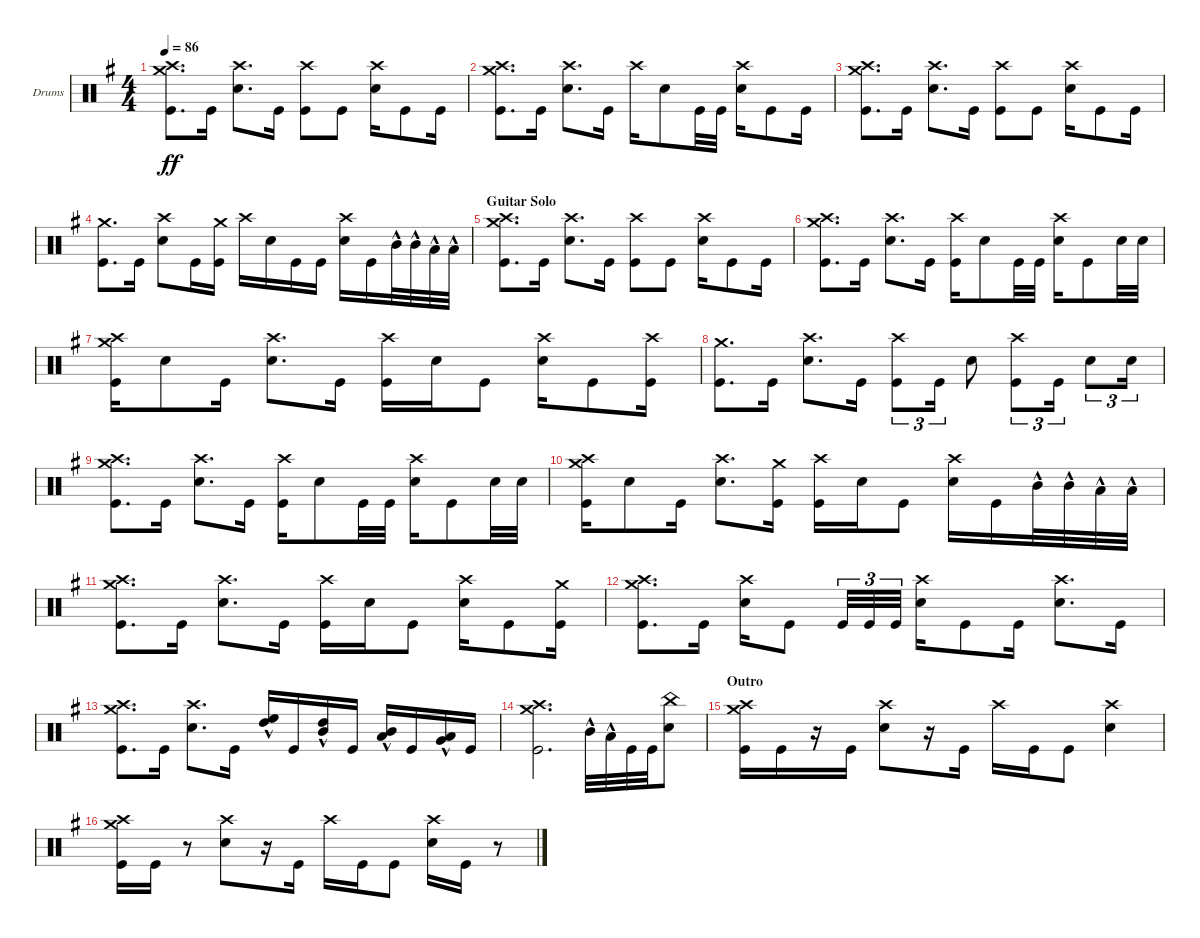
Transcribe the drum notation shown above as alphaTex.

\defaultSystemsLayout 4
\bracketExtendMode groupsimilarinstruments
\firstSystemTrackNameOrientation horizontal
\otherSystemsTrackNameOrientation horizontal
\track ("Drumkit" "Drums") {instrument percussion}
\staff {score}
\articulation defaults
\ts (4 4)
\tempo 86
\clef neutral
\ks eminor
("Crash high (hit)" "Crash medium (hit)" "Kick (hit)").8{d dy ff} "Kick (hit)".16 ("Crash high (hit)" "Snare (hit) 2").8{d} "Kick (hit)".16 ("Kick (hit)" "Crash high (hit)").8 "Kick (hit)".8 ("Snare (hit) 2" "Crash high (hit)").16 "Kick (hit)".8 "Kick (hit)".16 |
("Crash high (hit)" "Crash medium (hit)" "Kick (hit)").8{d} "Kick (hit)".16 ("Crash high (hit)" "Snare (hit) 2").8{d} "Kick (hit)".16 "Crash high (hit)".16 "Snare (hit) 2".8 "Kick (hit)".32 "Kick (hit)".32 ("Snare (hit) 2" "Crash high (hit)").16 "Kick (hit)".8 "Kick (hit)".16 |
("Crash high (hit)" "Crash medium (hit)" "Kick (hit)").8{d} "Kick (hit)".16 ("Crash high (hit)" "Snare (hit) 2").8{d} "Kick (hit)".16 ("Kick (hit)" "Crash high (hit)").8 "Kick (hit)".8 ("Snare (hit) 2" "Crash high (hit)").16 "Kick (hit)".8 "Kick (hit)".16 |
("Crash medium (hit)" "Kick (hit)").8{d} "Kick (hit)".16 ("Crash high (hit)" "Snare (hit) 2").8 "Kick (hit)".16 ("Kick (hit)" "Crash medium (hit)").16 "Crash high (hit)".16 "Snare (hit) 2".16 "Kick (hit)".16 "Kick (hit)".16 ("Snare (hit) 2" "Crash high (hit)").16 "Kick (hit)".16 "Mid Tom (hit)"{hac}.32 "Mid Tom (hit)"{hac}.32 "Low Tom (hit)"{hac}.32 "Low Tom (hit)"{hac}.32 |
\section ("" "Guitar Solo")
("Crash high (hit)" "Crash medium (hit)" "Kick (hit)").8{d} "Kick (hit)".16 ("Crash high (hit)" "Snare (hit) 2").8{d} "Kick (hit)".16 ("Kick (hit)" "Crash high (hit)").8 "Kick (hit)".8 ("Snare (hit) 2" "Crash high (hit)").16 "Kick (hit)".8 "Kick (hit)".16 |
("Crash high (hit)" "Crash medium (hit)" "Kick (hit)").8{d} "Kick (hit)".16 ("Crash high (hit)" "Snare (hit) 2").8{d} "Kick (hit)".16 ("Crash high (hit)" "Kick (hit)").16 "Snare (hit) 2".8 "Kick (hit)".32 "Kick (hit)".32 ("Snare (hit) 2" "Crash high (hit)").16 "Kick (hit)".8 "Snare (hit) 2".32 "Snare (hit) 2".32 |
("Crash high (hit)" "Crash medium (hit)" "Kick (hit)").16 "Snare (hit) 2".8 "Kick (hit)".16 ("Crash high (hit)" "Snare (hit) 2").8{d} "Kick (hit)".16 ("Crash high (hit)" "Kick (hit)").16 "Snare (hit) 2".16 "Kick (hit)".8 ("Snare (hit) 2" "Crash high (hit)").16 "Kick (hit)".8 ("Kick (hit)" "Crash high (hit)").16 |
("Crash medium (hit)" "Kick (hit)").8{d} "Kick (hit)".16 ("Crash high (hit)" "Snare (hit) 2").8{d} "Kick (hit)".16 ("Kick (hit)" "Crash high (hit)").8{tu (3 2)} "Kick (hit)".16{tu (3 2)} "Snare (hit) 2".8 ("Kick (hit)" "Crash high (hit)").8{tu (3 2)} "Kick (hit)".16{tu (3 2)} "Snare (hit) 2".8{tu (3 2)} "Snare (hit) 2".16{tu (3 2)} |
("Crash high (hit)" "Crash medium (hit)" "Kick (hit)").8{d} "Kick (hit)".16 ("Crash high (hit)" "Snare (hit) 2").8{d} "Kick (hit)".16 ("Crash high (hit)" "Kick (hit)").16 "Snare (hit) 2".8 "Kick (hit)".32 "Kick (hit)".32 ("Snare (hit) 2" "Crash high (hit)").16 "Kick (hit)".8 "Snare (hit) 2".32 "Snare (hit) 2".32 |
("Crash high (hit)" "Crash medium (hit)" "Kick (hit)").16 "Snare (hit) 2".8 "Kick (hit)".16 ("Crash high (hit)" "Snare (hit) 2").8{d} ("Kick (hit)" "Crash medium (hit)").16 ("Crash high (hit)" "Kick (hit)").16 "Snare (hit) 2".16 "Kick (hit)".8 ("Snare (hit) 2" "Crash high (hit)").16 "Kick (hit)".16 "Mid Tom (hit)"{hac}.32 "Mid Tom (hit)"{hac}.32 "Low Tom (hit)"{hac}.32 "Low Tom (hit)"{hac}.32 |
("Crash high (hit)" "Crash medium (hit)" "Kick (hit)").8{d} "Kick (hit)".16 ("Crash high (hit)" "Snare (hit) 2").8{d} "Kick (hit)".16 ("Crash high (hit)" "Kick (hit)").16 "Snare (hit) 2".16 "Kick (hit)".8 ("Snare (hit) 2" "Crash high (hit)").16 "Kick (hit)".8 ("Kick (hit)" "Crash medium (hit)").16 |
("Crash high (hit)" "Crash medium (hit)" "Kick (hit)").8{d} "Kick (hit)".16 ("Crash high (hit)" "Snare (hit) 2").16 "Kick (hit)".8 "Kick (hit)".32{tu (3 2)} "Kick (hit)".32{tu (3 2)} "Kick (hit)".32{tu (3 2)} ("Crash high (hit)" "Snare (hit) 2").16 "Kick (hit)".8 "Kick (hit)".16 ("Crash high (hit)" "Snare (hit) 2").8{d} "Kick (hit)".16 |
("Crash high (hit)" "Crash medium (hit)" "Kick (hit)").8{d} "Kick (hit)".16 ("Crash high (hit)" "Snare (hit) 2").8{d} "Kick (hit)".16 ("High Floor Tom (hit)"{hac} "High Tom (hit)"{hac}).16 "Kick (hit)".16 ("High Tom (hit)"{hac} "Mid Tom (hit)"{hac}).16 "Kick (hit)".16 ("Mid Tom (hit)"{hac} "Low Tom (hit)"{hac}).16 "Kick (hit)".16 ("Low Tom (hit)"{hac} "Very Low Tom (hit)"{hac}).16 "Kick (hit)".16 |
("Kick (hit)" "Crash high (hit)" "Crash medium (hit)").2{d} "Mid Tom (hit)"{hac}.32 "Low Tom (hit)"{hac}.32 "Kick (hit)".32 "Kick (hit)".32 ("Snare (hit) 2" "China (hit)").8 |
\section ("" "Outro")
("Kick (hit)" "Crash high (hit)" "Crash medium (hit)").16 "Kick (hit)".16 r.16 "Kick (hit)".16 ("Snare (hit) 2" "Crash high (hit)").8 r.16 "Kick (hit)".16 "Crash high (hit)".16 "Kick (hit)".16 "Kick (hit)".8 ("Snare (hit) 2" "Crash high (hit)").4 |
("Kick (hit)" "Crash high (hit)" "Crash medium (hit)").16 "Kick (hit)".16 r.8 ("Snare (hit) 2" "Crash high (hit)").8 r.16 "Kick (hit)".16 "Crash high (hit)".16 "Kick (hit)".16 "Kick (hit)".8 ("Snare (hit) 2" "Crash high (hit)").16 "Kick (hit)".16 r.8
